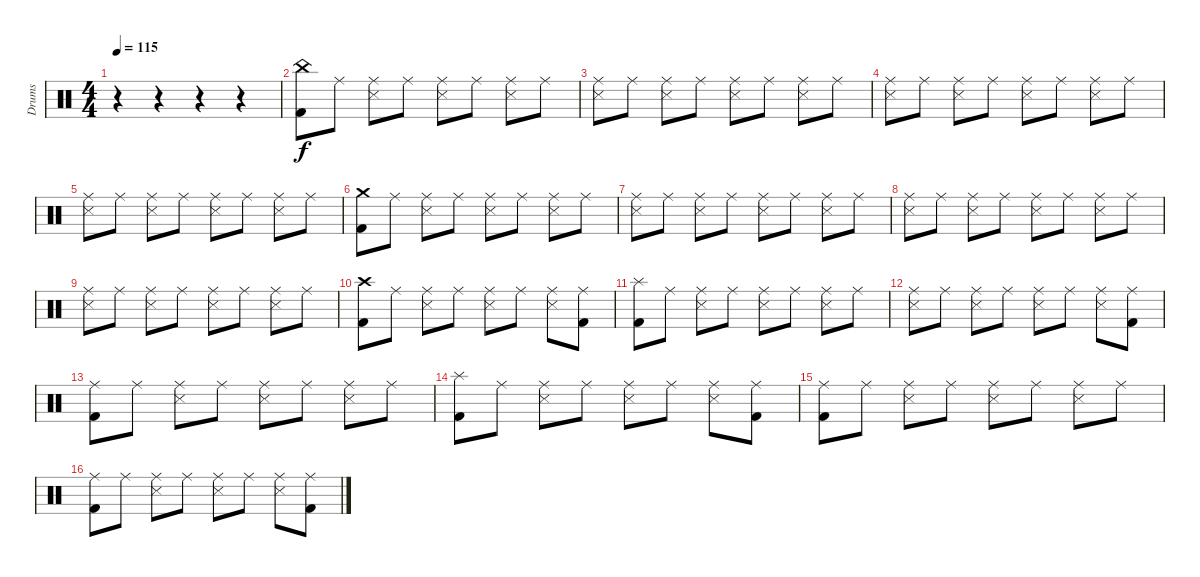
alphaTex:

\track ("Drums" "Drums") {instrument percussion}
\staff {score}
\articulation defaults
\ts (4 4)
\tempo 115
\clef neutral
\ks c
r.4{dy f} r.4 r.4 r.4 |
("China (hit)" "Kick (hit) 2").8 "Ride (middle)".8 ("Ride (middle)" "Snare (side stick) 3").8 "Ride (middle)".8 ("Ride (middle)" "Snare (side stick) 3").8 "Ride (middle)".8 ("Ride (middle)" "Snare (side stick) 3").8 "Ride (middle)".8 |
("Ride (middle)" "Snare (side stick) 3").8 "Ride (middle)".8 ("Ride (middle)" "Snare (side stick) 3").8 "Ride (middle)".8 ("Ride (middle)" "Snare (side stick) 3").8 "Ride (middle)".8 ("Ride (middle)" "Snare (side stick) 3").8 "Ride (middle)".8 |
("Ride (middle)" "Snare (side stick) 3").8 "Ride (middle)".8 ("Ride (middle)" "Snare (side stick) 3").8 "Ride (middle)".8 ("Ride (middle)" "Snare (side stick) 3").8 "Ride (middle)".8 ("Ride (middle)" "Snare (side stick) 3").8 "Ride (middle)".8 |
("Ride (middle)" "Snare (side stick) 3").8 "Ride (middle)".8 ("Ride (middle)" "Snare (side stick) 3").8 "Ride (middle)".8 ("Ride (middle)" "Snare (side stick) 3").8 "Ride (middle)".8 ("Ride (middle)" "Snare (side stick) 3").8 "Ride (middle)".8 |
("Crash medium (hit)" "Kick (hit) 2").8 "Ride (middle)".8 ("Ride (middle)" "Snare (side stick) 3").8 "Ride (middle)".8 ("Ride (middle)" "Snare (side stick) 3").8 "Ride (middle)".8 ("Ride (middle)" "Snare (side stick) 3").8 "Ride (middle)".8 |
("Ride (middle)" "Snare (side stick) 3").8 "Ride (middle)".8 ("Ride (middle)" "Snare (side stick) 3").8 "Ride (middle)".8 ("Ride (middle)" "Snare (side stick) 3").8 "Ride (middle)".8 ("Ride (middle)" "Snare (side stick) 3").8 "Ride (middle)".8 |
("Ride (middle)" "Snare (side stick) 3").8 "Ride (middle)".8 ("Ride (middle)" "Snare (side stick) 3").8 "Ride (middle)".8 ("Ride (middle)" "Snare (side stick) 3").8 "Ride (middle)".8 ("Ride (middle)" "Snare (side stick) 3").8 "Ride (middle)".8 |
("Ride (middle)" "Snare (side stick) 3").8 "Ride (middle)".8 ("Ride (middle)" "Snare (side stick) 3").8 "Ride (middle)".8 ("Ride (middle)" "Snare (side stick) 3").8 "Ride (middle)".8 ("Ride (middle)" "Snare (side stick) 3").8 "Ride (middle)".8 |
("Crash high (hit)" "Kick (hit) 2").8 "Ride (middle)".8 ("Ride (middle)" "Snare (side stick) 3").8 "Ride (middle)".8 ("Ride (middle)" "Snare (side stick) 3").8 "Ride (middle)".8 ("Ride (middle)" "Snare (side stick) 3").8 ("Ride (middle)" "Kick (hit) 2").8 |
("Splash (hit)" "Kick (hit) 2").8 "Ride (middle)".8 ("Ride (middle)" "Snare (side stick) 3").8 "Ride (middle)".8 ("Ride (middle)" "Snare (side stick) 3").8 "Ride (middle)".8 ("Ride (middle)" "Snare (side stick) 3").8 "Ride (middle)".8 |
("Ride (middle)" "Snare (side stick) 3").8 "Ride (middle)".8 ("Ride (middle)" "Snare (side stick) 3").8 "Ride (middle)".8 ("Ride (middle)" "Snare (side stick) 3").8 "Ride (middle)".8 ("Ride (middle)" "Snare (side stick) 3").8 ("Ride (middle)" "Kick (hit) 2").8 |
("Ride (middle)" "Kick (hit) 2").8 "Ride (middle)".8 ("Ride (middle)" "Snare (side stick) 3").8 "Ride (middle)".8 ("Ride (middle)" "Snare (side stick) 3").8 "Ride (middle)".8 ("Ride (middle)" "Snare (side stick) 3").8 "Ride (middle)".8 |
("Splash (hit)" "Kick (hit) 2").8 "Ride (middle)".8 ("Ride (middle)" "Snare (side stick) 3").8 "Ride (middle)".8 ("Ride (middle)" "Snare (side stick) 3").8 "Ride (middle)".8 ("Ride (middle)" "Snare (side stick) 3").8 ("Ride (middle)" "Kick (hit) 2").8 |
("Ride (middle)" "Kick (hit) 2").8 "Ride (middle)".8 ("Ride (middle)" "Snare (side stick) 3").8 "Ride (middle)".8 ("Ride (middle)" "Snare (side stick) 3").8 "Ride (middle)".8 ("Ride (middle)" "Snare (side stick) 3").8 "Ride (middle)".8 |
("Ride (middle)" "Kick (hit) 2").8 "Ride (middle)".8 ("Ride (middle)" "Snare (side stick) 3").8 "Ride (middle)".8 ("Ride (middle)" "Snare (side stick) 3").8 "Ride (middle)".8 ("Ride (middle)" "Snare (side stick) 3").8 ("Ride (middle)" "Kick (hit) 2").8
